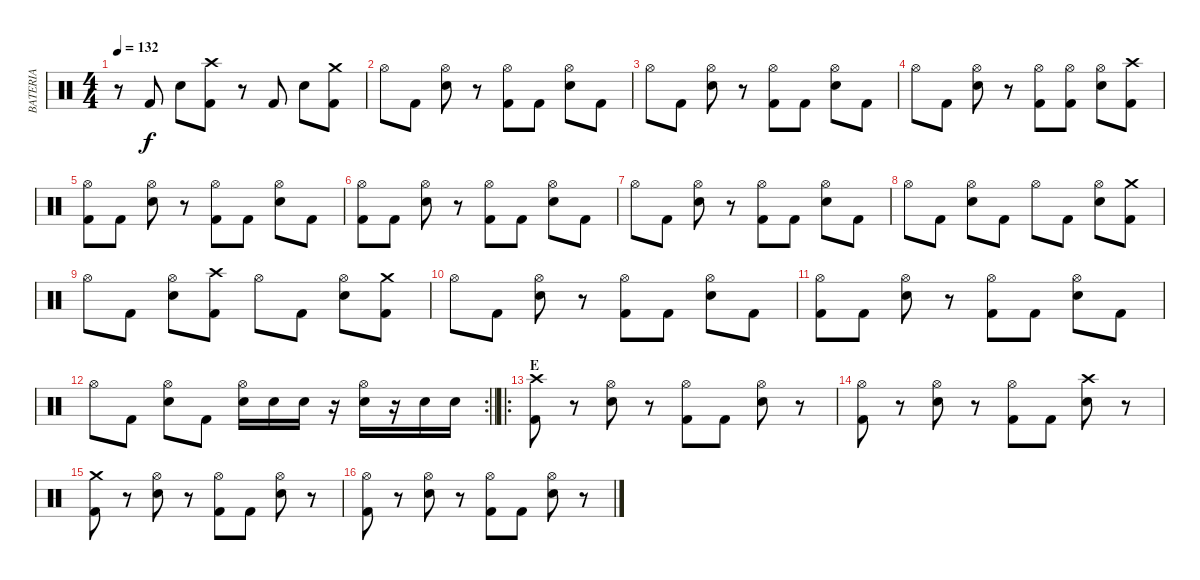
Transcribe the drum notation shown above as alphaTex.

\track ("BATERIA" "BATERIA") {instrument percussion}
\staff {score}
\articulation defaults
\ts (4 4)
\tempo 132
\clef neutral
\ks c
r.8{dy f} "Kick (hit) 2".8 "Electric Snare (hit)".8 ("Kick (hit) 2" "Crash high (hit)").8 r.8 "Kick (hit) 2".8 "Electric Snare (hit)".8 ("Kick (hit) 2" "Crash medium (hit)").8 |
"Hi-Hat (open)".8 "Kick (hit) 2".8 ("Hi-Hat (open)" "Electric Snare (hit)").8 r.8 ("Kick (hit) 2" "Hi-Hat (open)").8 "Kick (hit) 2".8 ("Hi-Hat (open)" "Electric Snare (hit)").8 "Kick (hit) 2".8 |
"Hi-Hat (open)".8 "Kick (hit) 2".8 ("Hi-Hat (open)" "Electric Snare (hit)").8 r.8 ("Kick (hit) 2" "Hi-Hat (open)").8 "Kick (hit) 2".8 ("Hi-Hat (open)" "Electric Snare (hit)").8 "Kick (hit) 2".8 |
"Hi-Hat (open)".8 "Kick (hit) 2".8 ("Hi-Hat (open)" "Electric Snare (hit)").8 r.8 ("Kick (hit) 2" "Hi-Hat (open)").8 ("Kick (hit) 2" "Hi-Hat (open)").8 ("Hi-Hat (open)" "Electric Snare (hit)").8 ("Kick (hit) 2" "Crash high (hit)").8 |
("Kick (hit) 2" "Hi-Hat (open)").8 "Kick (hit) 2".8 ("Hi-Hat (open)" "Electric Snare (hit)").8 r.8 ("Kick (hit) 2" "Hi-Hat (open)").8 "Kick (hit) 2".8 ("Hi-Hat (open)" "Electric Snare (hit)").8 "Kick (hit) 2".8 |
("Kick (hit) 2" "Hi-Hat (open)").8 "Kick (hit) 2".8 ("Hi-Hat (open)" "Electric Snare (hit)").8 r.8 ("Kick (hit) 2" "Hi-Hat (open)").8 "Kick (hit) 2".8 ("Hi-Hat (open)" "Electric Snare (hit)").8 "Kick (hit) 2".8 |
"Hi-Hat (open)".8 "Kick (hit) 2".8 ("Hi-Hat (open)" "Electric Snare (hit)").8 r.8 ("Kick (hit) 2" "Hi-Hat (open)").8 "Kick (hit) 2".8 ("Hi-Hat (open)" "Electric Snare (hit)").8 "Kick (hit) 2".8 |
"Hi-Hat (open)".8 "Kick (hit) 2".8 ("Hi-Hat (open)" "Electric Snare (hit)").8 "Kick (hit) 2".8 "Hi-Hat (open)".8 "Kick (hit) 2".8 ("Hi-Hat (open)" "Electric Snare (hit)").8 ("Kick (hit) 2" "Crash medium (hit)").8 |
"Hi-Hat (open)".8 "Kick (hit) 2".8 ("Hi-Hat (open)" "Electric Snare (hit)").8 ("Kick (hit) 2" "Crash high (hit)").8 "Hi-Hat (open)".8 "Kick (hit) 2".8 ("Hi-Hat (open)" "Electric Snare (hit)").8 ("Kick (hit) 2" "Crash medium (hit)").8 |
"Hi-Hat (open)".8 "Kick (hit) 2".8 ("Hi-Hat (open)" "Electric Snare (hit)").8 r.8 ("Kick (hit) 2" "Hi-Hat (open)").8 "Kick (hit) 2".8 ("Hi-Hat (open)" "Electric Snare (hit)").8 "Kick (hit) 2".8 |
("Kick (hit) 2" "Hi-Hat (open)").8 "Kick (hit) 2".8 ("Hi-Hat (open)" "Electric Snare (hit)").8 r.8 ("Kick (hit) 2" "Hi-Hat (open)").8 "Kick (hit) 2".8 ("Hi-Hat (open)" "Electric Snare (hit)").8 "Kick (hit) 2".8 |
\rc 2
\barLineRight lightlight "Hi-Hat (open)".8 "Kick (hit) 2".8
("Hi-Hat (open)" "Electric Snare (hit)").8 "Kick (hit) 2".8 ("Hi-Hat (open)" "Electric Snare (hit)").16 "Electric Snare (hit)".16 "Electric Snare (hit)".16 r.16 ("Hi-Hat (open)" "Electric Snare (hit)").16 r.16 "Electric Snare (hit)".16 "Electric Snare (hit)".16 |
\ro
\section ("" "E")
("Kick (hit) 2" "Crash high (hit)").8 r.8 ("Hi-Hat (open)" "Electric Snare (hit)").8 r.8 ("Kick (hit) 2" "Hi-Hat (open)").8 "Kick (hit) 2".8 ("Hi-Hat (open)" "Electric Snare (hit)").8 r.8 |
("Kick (hit) 2" "Hi-Hat (open)").8 r.8 ("Hi-Hat (open)" "Electric Snare (hit)").8 r.8 ("Kick (hit) 2" "Hi-Hat (open)").8 "Kick (hit) 2".8 ("Crash high (hit)" "Electric Snare (hit)").8 r.8 |
("Kick (hit) 2" "Crash medium (hit)").8 r.8 ("Hi-Hat (open)" "Electric Snare (hit)").8 r.8 ("Kick (hit) 2" "Hi-Hat (open)").8 "Kick (hit) 2".8 ("Hi-Hat (open)" "Electric Snare (hit)").8 r.8 |
("Kick (hit) 2" "Hi-Hat (open)").8 r.8 ("Hi-Hat (open)" "Electric Snare (hit)").8 r.8 ("Kick (hit) 2" "Hi-Hat (open)").8 "Kick (hit) 2".8 ("Hi-Hat (open)" "Electric Snare (hit)").8 r.8
